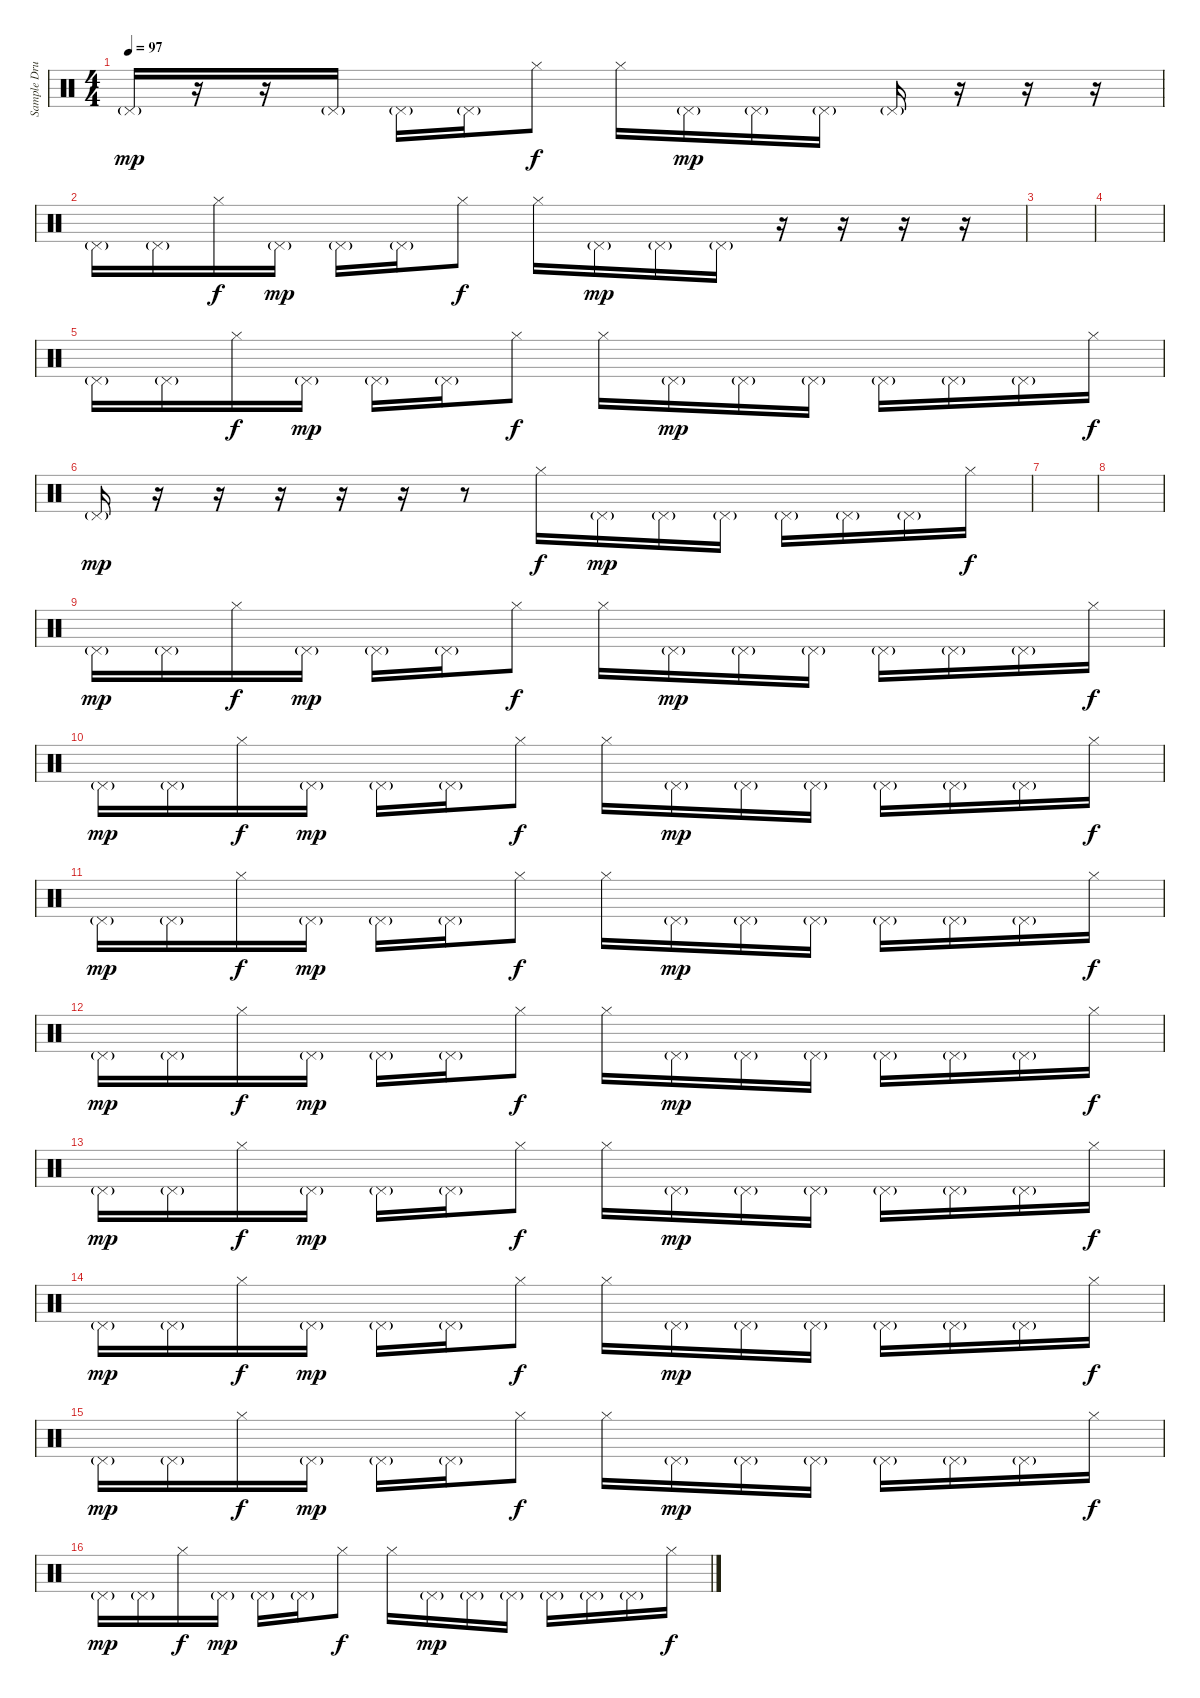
\track ("Sample Drums" "Sample Dru") {instrument percussion}
\staff {score}
\articulation defaults
\ts (4 4)
\tempo 97
\clef neutral
\ks c "Pedal Hi-Hat (hit)"{g}.16{dy mp}
r.16 r.16 "Pedal Hi-Hat (hit)"{g}.16 "Pedal Hi-Hat (hit)"{g}.16 "Pedal Hi-Hat (hit)"{g}.16 "Hi-Hat (closed)".8{dy f} "Hi-Hat (closed)".16 "Pedal Hi-Hat (hit)"{g}.16{dy mp} "Pedal Hi-Hat (hit)"{g}.16 "Pedal Hi-Hat (hit)"{g}.16 "Pedal Hi-Hat (hit)"{g}.16 r.16 r.16 r.16 |
"Pedal Hi-Hat (hit)"{g}.16 "Pedal Hi-Hat (hit)"{g}.16 "Hi-Hat (closed)".16{dy f} "Pedal Hi-Hat (hit)"{g}.16{dy mp} "Pedal Hi-Hat (hit)"{g}.16 "Pedal Hi-Hat (hit)"{g}.16 "Hi-Hat (closed)".8{dy f} "Hi-Hat (closed)".16 "Pedal Hi-Hat (hit)"{g}.16{dy mp} "Pedal Hi-Hat (hit)"{g}.16 "Pedal Hi-Hat (hit)"{g}.16 r.16 r.16 r.16 r.16 |
|
|
"Pedal Hi-Hat (hit)"{g}.16 "Pedal Hi-Hat (hit)"{g}.16 "Hi-Hat (closed)".16{dy f} "Pedal Hi-Hat (hit)"{g}.16{dy mp} "Pedal Hi-Hat (hit)"{g}.16 "Pedal Hi-Hat (hit)"{g}.16 "Hi-Hat (closed)".8{dy f} "Hi-Hat (closed)".16 "Pedal Hi-Hat (hit)"{g}.16{dy mp} "Pedal Hi-Hat (hit)"{g}.16 "Pedal Hi-Hat (hit)"{g}.16 "Pedal Hi-Hat (hit)"{g}.16 "Pedal Hi-Hat (hit)"{g}.16 "Pedal Hi-Hat (hit)"{g}.16 "Hi-Hat (closed)".16{dy f} |
"Pedal Hi-Hat (hit)"{g}.16{dy mp} r.16 r.16 r.16 r.16 r.16 r.8 "Hi-Hat (closed)".16{dy f} "Pedal Hi-Hat (hit)"{g}.16{dy mp} "Pedal Hi-Hat (hit)"{g}.16 "Pedal Hi-Hat (hit)"{g}.16 "Pedal Hi-Hat (hit)"{g}.16 "Pedal Hi-Hat (hit)"{g}.16 "Pedal Hi-Hat (hit)"{g}.16 "Hi-Hat (closed)".16{dy f} |
|
|
"Pedal Hi-Hat (hit)"{g}.16{dy mp} "Pedal Hi-Hat (hit)"{g}.16 "Hi-Hat (closed)".16{dy f} "Pedal Hi-Hat (hit)"{g}.16{dy mp} "Pedal Hi-Hat (hit)"{g}.16 "Pedal Hi-Hat (hit)"{g}.16 "Hi-Hat (closed)".8{dy f} "Hi-Hat (closed)".16 "Pedal Hi-Hat (hit)"{g}.16{dy mp} "Pedal Hi-Hat (hit)"{g}.16 "Pedal Hi-Hat (hit)"{g}.16 "Pedal Hi-Hat (hit)"{g}.16 "Pedal Hi-Hat (hit)"{g}.16 "Pedal Hi-Hat (hit)"{g}.16 "Hi-Hat (closed)".16{dy f} |
"Pedal Hi-Hat (hit)"{g}.16{dy mp} "Pedal Hi-Hat (hit)"{g}.16 "Hi-Hat (closed)".16{dy f} "Pedal Hi-Hat (hit)"{g}.16{dy mp} "Pedal Hi-Hat (hit)"{g}.16 "Pedal Hi-Hat (hit)"{g}.16 "Hi-Hat (closed)".8{dy f} "Hi-Hat (closed)".16 "Pedal Hi-Hat (hit)"{g}.16{dy mp} "Pedal Hi-Hat (hit)"{g}.16 "Pedal Hi-Hat (hit)"{g}.16 "Pedal Hi-Hat (hit)"{g}.16 "Pedal Hi-Hat (hit)"{g}.16 "Pedal Hi-Hat (hit)"{g}.16 "Hi-Hat (closed)".16{dy f} |
"Pedal Hi-Hat (hit)"{g}.16{dy mp} "Pedal Hi-Hat (hit)"{g}.16 "Hi-Hat (closed)".16{dy f} "Pedal Hi-Hat (hit)"{g}.16{dy mp} "Pedal Hi-Hat (hit)"{g}.16 "Pedal Hi-Hat (hit)"{g}.16 "Hi-Hat (closed)".8{dy f} "Hi-Hat (closed)".16 "Pedal Hi-Hat (hit)"{g}.16{dy mp} "Pedal Hi-Hat (hit)"{g}.16 "Pedal Hi-Hat (hit)"{g}.16 "Pedal Hi-Hat (hit)"{g}.16 "Pedal Hi-Hat (hit)"{g}.16 "Pedal Hi-Hat (hit)"{g}.16 "Hi-Hat (closed)".16{dy f} |
"Pedal Hi-Hat (hit)"{g}.16{dy mp} "Pedal Hi-Hat (hit)"{g}.16 "Hi-Hat (closed)".16{dy f} "Pedal Hi-Hat (hit)"{g}.16{dy mp} "Pedal Hi-Hat (hit)"{g}.16 "Pedal Hi-Hat (hit)"{g}.16 "Hi-Hat (closed)".8{dy f} "Hi-Hat (closed)".16 "Pedal Hi-Hat (hit)"{g}.16{dy mp} "Pedal Hi-Hat (hit)"{g}.16 "Pedal Hi-Hat (hit)"{g}.16 "Pedal Hi-Hat (hit)"{g}.16 "Pedal Hi-Hat (hit)"{g}.16 "Pedal Hi-Hat (hit)"{g}.16 "Hi-Hat (closed)".16{dy f} |
"Pedal Hi-Hat (hit)"{g}.16{dy mp} "Pedal Hi-Hat (hit)"{g}.16 "Hi-Hat (closed)".16{dy f} "Pedal Hi-Hat (hit)"{g}.16{dy mp} "Pedal Hi-Hat (hit)"{g}.16 "Pedal Hi-Hat (hit)"{g}.16 "Hi-Hat (closed)".8{dy f} "Hi-Hat (closed)".16 "Pedal Hi-Hat (hit)"{g}.16{dy mp} "Pedal Hi-Hat (hit)"{g}.16 "Pedal Hi-Hat (hit)"{g}.16 "Pedal Hi-Hat (hit)"{g}.16 "Pedal Hi-Hat (hit)"{g}.16 "Pedal Hi-Hat (hit)"{g}.16 "Hi-Hat (closed)".16{dy f} |
"Pedal Hi-Hat (hit)"{g}.16{dy mp} "Pedal Hi-Hat (hit)"{g}.16 "Hi-Hat (closed)".16{dy f} "Pedal Hi-Hat (hit)"{g}.16{dy mp} "Pedal Hi-Hat (hit)"{g}.16 "Pedal Hi-Hat (hit)"{g}.16 "Hi-Hat (closed)".8{dy f} "Hi-Hat (closed)".16 "Pedal Hi-Hat (hit)"{g}.16{dy mp} "Pedal Hi-Hat (hit)"{g}.16 "Pedal Hi-Hat (hit)"{g}.16 "Pedal Hi-Hat (hit)"{g}.16 "Pedal Hi-Hat (hit)"{g}.16 "Pedal Hi-Hat (hit)"{g}.16 "Hi-Hat (closed)".16{dy f} |
"Pedal Hi-Hat (hit)"{g}.16{dy mp} "Pedal Hi-Hat (hit)"{g}.16 "Hi-Hat (closed)".16{dy f} "Pedal Hi-Hat (hit)"{g}.16{dy mp} "Pedal Hi-Hat (hit)"{g}.16 "Pedal Hi-Hat (hit)"{g}.16 "Hi-Hat (closed)".8{dy f} "Hi-Hat (closed)".16 "Pedal Hi-Hat (hit)"{g}.16{dy mp} "Pedal Hi-Hat (hit)"{g}.16 "Pedal Hi-Hat (hit)"{g}.16 "Pedal Hi-Hat (hit)"{g}.16 "Pedal Hi-Hat (hit)"{g}.16 "Pedal Hi-Hat (hit)"{g}.16 "Hi-Hat (closed)".16{dy f} |
"Pedal Hi-Hat (hit)"{g}.16{dy mp} "Pedal Hi-Hat (hit)"{g}.16 "Hi-Hat (closed)".16{dy f} "Pedal Hi-Hat (hit)"{g}.16{dy mp} "Pedal Hi-Hat (hit)"{g}.16 "Pedal Hi-Hat (hit)"{g}.16 "Hi-Hat (closed)".8{dy f} "Hi-Hat (closed)".16 "Pedal Hi-Hat (hit)"{g}.16{dy mp} "Pedal Hi-Hat (hit)"{g}.16 "Pedal Hi-Hat (hit)"{g}.16 "Pedal Hi-Hat (hit)"{g}.16 "Pedal Hi-Hat (hit)"{g}.16 "Pedal Hi-Hat (hit)"{g}.16 "Hi-Hat (closed)".16{dy f}
